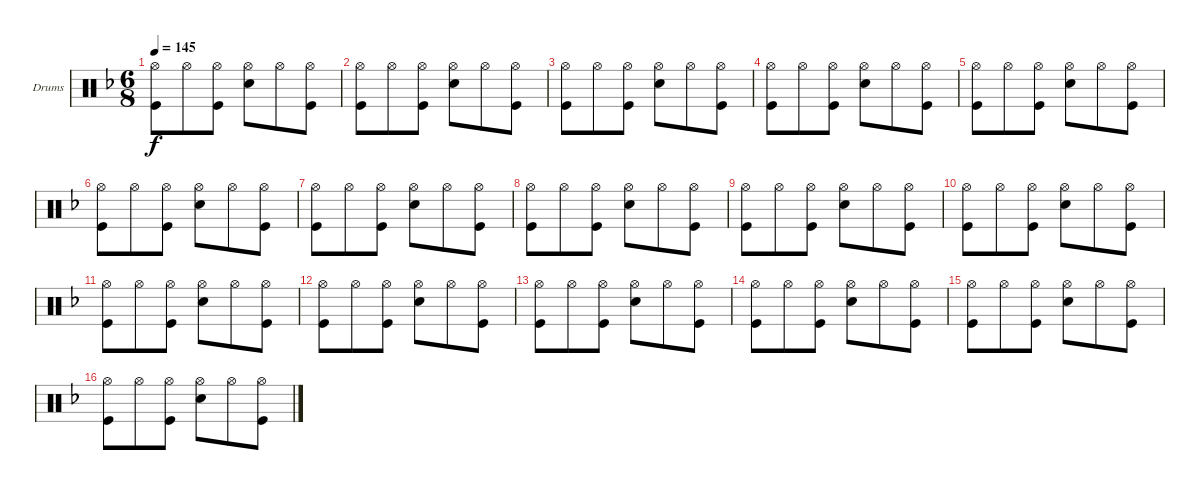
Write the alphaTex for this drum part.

\bracketExtendMode groupsimilarinstruments
\firstSystemTrackNameOrientation horizontal
\otherSystemsTrackNameOrientation horizontal
\track ("Drumkit" "Drums") {instrument percussion}
\staff {score}
\articulation defaults
\ts (6 8)
\tempo 145
\clef neutral
\ks f
("Hi-Hat (open)" "Kick (hit)").8{dy f} "Hi-Hat (open)".8 ("Hi-Hat (open)" "Kick (hit)").8 ("Hi-Hat (open)" "Snare (hit) 2").8 "Hi-Hat (open)".8 ("Hi-Hat (open)" "Kick (hit)").8 |
("Hi-Hat (open)" "Kick (hit)").8 "Hi-Hat (open)".8 ("Hi-Hat (open)" "Kick (hit)").8 ("Hi-Hat (open)" "Snare (hit) 2").8 "Hi-Hat (open)".8 ("Hi-Hat (open)" "Kick (hit)").8 |
("Hi-Hat (open)" "Kick (hit)").8 "Hi-Hat (open)".8 ("Hi-Hat (open)" "Kick (hit)").8 ("Hi-Hat (open)" "Snare (hit) 2").8 "Hi-Hat (open)".8 ("Hi-Hat (open)" "Kick (hit)").8 |
("Hi-Hat (open)" "Kick (hit)").8 "Hi-Hat (open)".8 ("Hi-Hat (open)" "Kick (hit)").8 ("Hi-Hat (open)" "Snare (hit) 2").8 "Hi-Hat (open)".8 ("Hi-Hat (open)" "Kick (hit)").8 |
("Hi-Hat (open)" "Kick (hit)").8 "Hi-Hat (open)".8 ("Hi-Hat (open)" "Kick (hit)").8 ("Hi-Hat (open)" "Snare (hit) 2").8 "Hi-Hat (open)".8 ("Hi-Hat (open)" "Kick (hit)").8 |
("Hi-Hat (open)" "Kick (hit)").8 "Hi-Hat (open)".8 ("Hi-Hat (open)" "Kick (hit)").8 ("Hi-Hat (open)" "Snare (hit) 2").8 "Hi-Hat (open)".8 ("Hi-Hat (open)" "Kick (hit)").8 |
("Hi-Hat (open)" "Kick (hit)").8 "Hi-Hat (open)".8 ("Hi-Hat (open)" "Kick (hit)").8 ("Hi-Hat (open)" "Snare (hit) 2").8 "Hi-Hat (open)".8 ("Hi-Hat (open)" "Kick (hit)").8 |
("Hi-Hat (open)" "Kick (hit)").8 "Hi-Hat (open)".8 ("Hi-Hat (open)" "Kick (hit)").8 ("Hi-Hat (open)" "Snare (hit) 2").8 "Hi-Hat (open)".8 ("Hi-Hat (open)" "Kick (hit)").8 |
("Hi-Hat (open)" "Kick (hit)").8 "Hi-Hat (open)".8 ("Hi-Hat (open)" "Kick (hit)").8 ("Hi-Hat (open)" "Snare (hit) 2").8 "Hi-Hat (open)".8 ("Hi-Hat (open)" "Kick (hit)").8 |
("Hi-Hat (open)" "Kick (hit)").8 "Hi-Hat (open)".8 ("Hi-Hat (open)" "Kick (hit)").8 ("Hi-Hat (open)" "Snare (hit) 2").8 "Hi-Hat (open)".8 ("Hi-Hat (open)" "Kick (hit)").8 |
("Hi-Hat (open)" "Kick (hit)").8 "Hi-Hat (open)".8 ("Hi-Hat (open)" "Kick (hit)").8 ("Hi-Hat (open)" "Snare (hit) 2").8 "Hi-Hat (open)".8 ("Hi-Hat (open)" "Kick (hit)").8 |
("Hi-Hat (open)" "Kick (hit)").8 "Hi-Hat (open)".8 ("Hi-Hat (open)" "Kick (hit)").8 ("Hi-Hat (open)" "Snare (hit) 2").8 "Hi-Hat (open)".8 ("Hi-Hat (open)" "Kick (hit)").8 |
("Hi-Hat (open)" "Kick (hit)").8 "Hi-Hat (open)".8 ("Hi-Hat (open)" "Kick (hit)").8 ("Hi-Hat (open)" "Snare (hit) 2").8 "Hi-Hat (open)".8 ("Hi-Hat (open)" "Kick (hit)").8 |
("Hi-Hat (open)" "Kick (hit)").8 "Hi-Hat (open)".8 ("Hi-Hat (open)" "Kick (hit)").8 ("Hi-Hat (open)" "Snare (hit) 2").8 "Hi-Hat (open)".8 ("Hi-Hat (open)" "Kick (hit)").8 |
("Hi-Hat (open)" "Kick (hit)").8 "Hi-Hat (open)".8 ("Hi-Hat (open)" "Kick (hit)").8 ("Hi-Hat (open)" "Snare (hit) 2").8 "Hi-Hat (open)".8 ("Hi-Hat (open)" "Kick (hit)").8 |
("Hi-Hat (open)" "Kick (hit)").8 "Hi-Hat (open)".8 ("Hi-Hat (open)" "Kick (hit)").8 ("Hi-Hat (open)" "Snare (hit) 2").8 "Hi-Hat (open)".8 ("Hi-Hat (open)" "Kick (hit)").8
